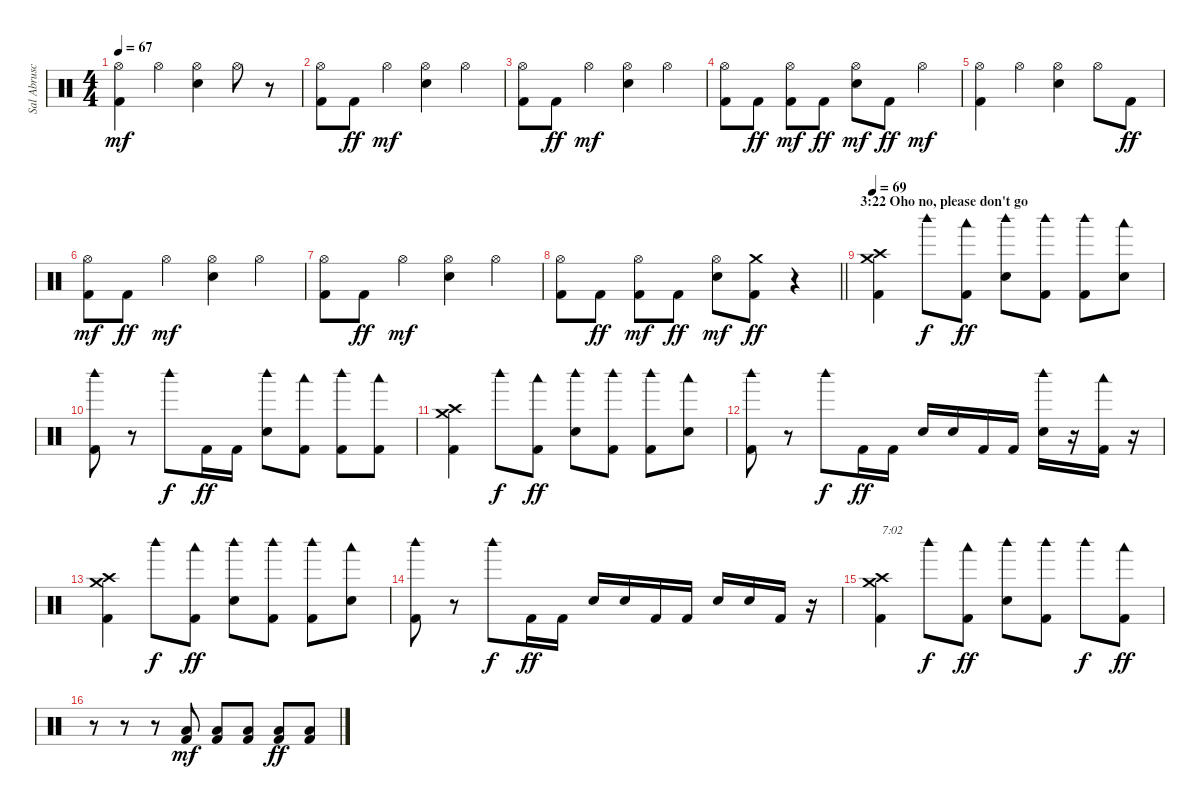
\track ("Sal Abruscato (Drums)" "Sal Abrusc") {instrument percussion}
\staff {score}
\articulation defaults
\ts (4 4)
\tempo 67
\clef neutral
\ks c
("Kick (hit) 2" "Hi-Hat (open)").4{dy mf} "Hi-Hat (open)".4 ("Electric Snare (hit)" "Hi-Hat (open)").4 "Hi-Hat (open)".8 r.8 |
("Kick (hit) 2" "Hi-Hat (open)").8 "Kick (hit) 2".8{dy ff} "Hi-Hat (open)".4{dy mf} ("Electric Snare (hit)" "Hi-Hat (open)").4 "Hi-Hat (open)".4 |
("Kick (hit) 2" "Hi-Hat (open)").8 "Kick (hit) 2".8{dy ff} "Hi-Hat (open)".4{dy mf} ("Electric Snare (hit)" "Hi-Hat (open)").4 "Hi-Hat (open)".4 |
("Kick (hit) 2" "Hi-Hat (open)").8 "Kick (hit) 2".8{dy ff} ("Kick (hit) 2" "Hi-Hat (open)").8{dy mf} "Kick (hit) 2".8{dy ff} ("Electric Snare (hit)" "Hi-Hat (open)").8{dy mf} "Kick (hit) 2".8{dy ff} "Hi-Hat (open)".4{dy mf} |
("Kick (hit) 2" "Hi-Hat (open)").4 "Hi-Hat (open)".4 ("Electric Snare (hit)" "Hi-Hat (open)").4 "Hi-Hat (open)".8 "Kick (hit) 2".8{dy ff} |
("Kick (hit) 2" "Hi-Hat (open)").8{dy mf} "Kick (hit) 2".8{dy ff} "Hi-Hat (open)".4{dy mf} ("Electric Snare (hit)" "Hi-Hat (open)").4 "Hi-Hat (open)".4 |
("Kick (hit) 2" "Hi-Hat (open)").8 "Kick (hit) 2".8{dy ff} "Hi-Hat (open)".4{dy mf} ("Electric Snare (hit)" "Hi-Hat (open)").4 "Hi-Hat (open)".4 |
\barLineRight lightlight
("Kick (hit) 2" "Hi-Hat (open)").8 "Kick (hit) 2".8{dy ff} ("Kick (hit) 2" "Hi-Hat (open)").8{dy mf} "Kick (hit) 2".8{dy ff} ("Electric Snare (hit)" "Hi-Hat (open)").8{dy mf} ("Kick (hit) 2" "Crash medium (hit)").8{dy ff} r.4 |
\section ("" "3:22 Oho no, please don't go ")
\tempo 69
("Kick (hit) 2" "Crash medium (hit)" "Crash high (hit)").4 "Woodblock high (hit)".8{dy f} ("Kick (hit) 2" "Woodblock low (hit)").8{dy ff} ("Electric Snare (hit)" "Woodblock high (hit)").8 ("Kick (hit) 2" "Woodblock high (hit)").8 ("Kick (hit) 2" "Woodblock high (hit)").8 ("Electric Snare (hit)" "Woodblock low (hit)").8 |
("Kick (hit) 2" "Woodblock high (hit)").8 r.8 "Woodblock high (hit)".8{dy f} "Kick (hit) 2".16{dy ff} "Kick (hit) 2".16 ("Electric Snare (hit)" "Woodblock high (hit)").8 ("Kick (hit) 2" "Woodblock low (hit)").8 ("Kick (hit) 2" "Woodblock high (hit)").8 ("Kick (hit) 2" "Woodblock low (hit)").8 |
("Kick (hit) 2" "Crash medium (hit)" "Crash high (hit)").4 "Woodblock high (hit)".8{dy f} ("Kick (hit) 2" "Woodblock low (hit)").8{dy ff} ("Electric Snare (hit)" "Woodblock high (hit)").8 ("Kick (hit) 2" "Woodblock high (hit)").8 ("Kick (hit) 2" "Woodblock high (hit)").8 ("Electric Snare (hit)" "Woodblock low (hit)").8 |
("Kick (hit) 2" "Woodblock high (hit)").8 r.8 "Woodblock high (hit)".8{dy f} "Kick (hit) 2".16{dy ff} "Kick (hit) 2".16 "Electric Snare (hit)".16 "Electric Snare (hit)".16 "Kick (hit) 2".16 "Kick (hit) 2".16 ("Electric Snare (hit)" "Woodblock high (hit)").16 r.16 ("Kick (hit) 2" "Woodblock low (hit)").16 r.16 |
("Kick (hit) 2" "Crash high (hit)" "Crash medium (hit)").4 "Woodblock high (hit)".8{dy f} ("Kick (hit) 2" "Woodblock low (hit)").8{dy ff} ("Electric Snare (hit)" "Woodblock high (hit)").8 ("Kick (hit) 2" "Woodblock high (hit)").8 ("Kick (hit) 2" "Woodblock high (hit)").8 ("Electric Snare (hit)" "Woodblock low (hit)").8 |
("Kick (hit) 2" "Woodblock high (hit)").8 r.8 "Woodblock high (hit)".8{dy f} "Kick (hit) 2".16{dy ff} "Kick (hit) 2".16 "Electric Snare (hit)".16 "Electric Snare (hit)".16 "Kick (hit) 2".16 "Kick (hit) 2".16 "Electric Snare (hit)".16 "Electric Snare (hit)".16 "Kick (hit) 2".16 r.16 |
("Kick (hit) 2" "Crash high (hit)" "Crash medium (hit)").4{txt "7:02"} "Woodblock high (hit)".8{dy f} ("Kick (hit) 2" "Woodblock low (hit)").8{dy ff} ("Electric Snare (hit)" "Woodblock high (hit)").8 ("Kick (hit) 2" "Woodblock high (hit)").8 "Woodblock high (hit)".8{dy f} ("Kick (hit) 2" "Woodblock low (hit)").8{dy ff} |
r.8 r.8 r.8 ("Kick (hit) 2" "Low Tom (hit)").8{dy mf} ("Kick (hit) 2" "Low Tom (hit)").8 ("Kick (hit) 2" "Low Tom (hit)").8 ("Kick (hit) 2" "Low Tom (hit)").8{dy ff} ("Kick (hit) 2" "Low Tom (hit)").8
